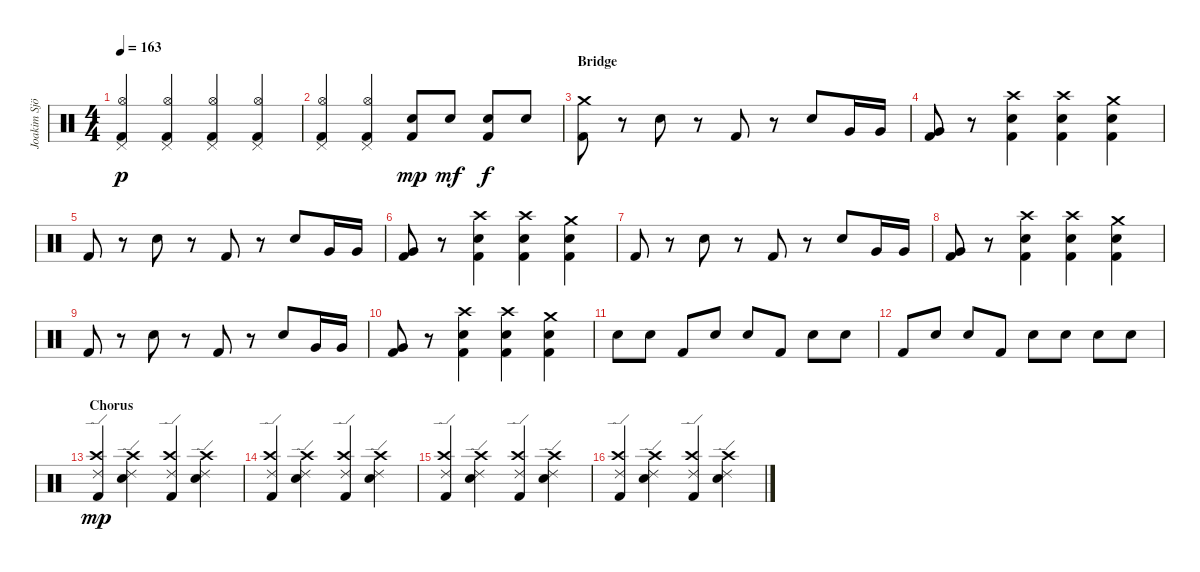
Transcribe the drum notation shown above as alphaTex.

\track ("Joakim Sjöberg" "Joakim Sjö") {instrument percussion}
\staff {score}
\articulation defaults
\ts (4 4)
\tempo 163
\clef neutral
\ks c
("Pedal Hi-Hat (hit)" "Hi-Hat (open)" "Kick (hit) 2").4{dy p} ("Pedal Hi-Hat (hit)" "Hi-Hat (open)" "Kick (hit) 2").4 ("Pedal Hi-Hat (hit)" "Hi-Hat (open)" "Kick (hit) 2").4 ("Pedal Hi-Hat (hit)" "Hi-Hat (open)" "Kick (hit) 2").4 |
("Pedal Hi-Hat (hit)" "Hi-Hat (open)" "Kick (hit) 2").4 ("Pedal Hi-Hat (hit)" "Hi-Hat (open)" "Kick (hit) 2").4 ("Electric Snare (hit)" "Kick (hit) 2").8{dy mp} "Electric Snare (hit)".8{dy mf} ("Electric Snare (hit)" "Kick (hit) 2").8{dy f} "Electric Snare (hit)".8 |
\section ("" "Bridge")
("Crash medium (hit)" "Kick (hit) 2").8 r.8 "Electric Snare (hit)".8 r.8 "Kick (hit) 2".8 r.8 "Electric Snare (hit)".8 "Very Low Tom (hit)".16 "Very Low Tom (hit)".16 |
("Very Low Tom (hit)" "Kick (hit) 2").8 r.8 ("Crash high (hit)" "Electric Snare (hit)" "Kick (hit) 2").4 ("Crash high (hit)" "Electric Snare (hit)" "Kick (hit) 2").4 ("Crash medium (hit)" "Electric Snare (hit)" "Kick (hit) 2").4 |
"Kick (hit) 2".8 r.8 "Electric Snare (hit)".8 r.8 "Kick (hit) 2".8 r.8 "Electric Snare (hit)".8 "Very Low Tom (hit)".16 "Very Low Tom (hit)".16 |
("Very Low Tom (hit)" "Kick (hit) 2").8 r.8 ("Crash high (hit)" "Electric Snare (hit)" "Kick (hit) 2").4 ("Crash high (hit)" "Electric Snare (hit)" "Kick (hit) 2").4 ("Crash medium (hit)" "Electric Snare (hit)" "Kick (hit) 2").4 |
"Kick (hit) 2".8 r.8 "Electric Snare (hit)".8 r.8 "Kick (hit) 2".8 r.8 "Electric Snare (hit)".8 "Very Low Tom (hit)".16 "Very Low Tom (hit)".16 |
("Very Low Tom (hit)" "Kick (hit) 2").8 r.8 ("Crash high (hit)" "Electric Snare (hit)" "Kick (hit) 2").4 ("Crash high (hit)" "Electric Snare (hit)" "Kick (hit) 2").4 ("Crash medium (hit)" "Electric Snare (hit)" "Kick (hit) 2").4 |
"Kick (hit) 2".8 r.8 "Electric Snare (hit)".8 r.8 "Kick (hit) 2".8 r.8 "Electric Snare (hit)".8 "Very Low Tom (hit)".16 "Very Low Tom (hit)".16 |
("Very Low Tom (hit)" "Kick (hit) 2").8 r.8 ("Crash high (hit)" "Electric Snare (hit)" "Kick (hit) 2").4 ("Crash high (hit)" "Electric Snare (hit)" "Kick (hit) 2").4 ("Crash medium (hit)" "Electric Snare (hit)" "Kick (hit) 2").4 |
"Electric Snare (hit)".8 "Electric Snare (hit)".8 "Kick (hit) 2".8 "Electric Snare (hit)".8 "Electric Snare (hit)".8 "Kick (hit) 2".8 "Electric Snare (hit)".8 "Electric Snare (hit)".8 |
"Kick (hit) 2".8 "Electric Snare (hit)".8 "Electric Snare (hit)".8 "Kick (hit) 2".8 "Electric Snare (hit)".8 "Electric Snare (hit)".8 "Electric Snare (hit)".8 "Electric Snare (hit)".8 |
\section ("" "Chorus")
("Crash high (hit)" "Ride (edge) 2" "Kick (hit) 2").4{dy mp} ("Crash high (hit)" "Ride (edge) 2" "Electric Snare (hit)").4 ("Crash high (hit)" "Ride (edge) 2" "Kick (hit) 2").4 ("Crash high (hit)" "Ride (edge) 2" "Electric Snare (hit)").4 |
("Crash high (hit)" "Ride (edge) 2" "Kick (hit) 2").4 ("Crash high (hit)" "Ride (edge) 2" "Electric Snare (hit)").4 ("Crash high (hit)" "Ride (edge) 2" "Kick (hit) 2").4 ("Crash high (hit)" "Ride (edge) 2" "Electric Snare (hit)").4 |
("Crash high (hit)" "Ride (edge) 2" "Kick (hit) 2").4 ("Crash high (hit)" "Ride (edge) 2" "Electric Snare (hit)").4 ("Crash high (hit)" "Ride (edge) 2" "Kick (hit) 2").4 ("Crash high (hit)" "Ride (edge) 2" "Electric Snare (hit)").4 |
("Crash high (hit)" "Ride (edge) 2" "Kick (hit) 2").4 ("Crash high (hit)" "Ride (edge) 2" "Electric Snare (hit)").4 ("Crash high (hit)" "Ride (edge) 2" "Kick (hit) 2").4 ("Crash high (hit)" "Ride (edge) 2" "Electric Snare (hit)").4
